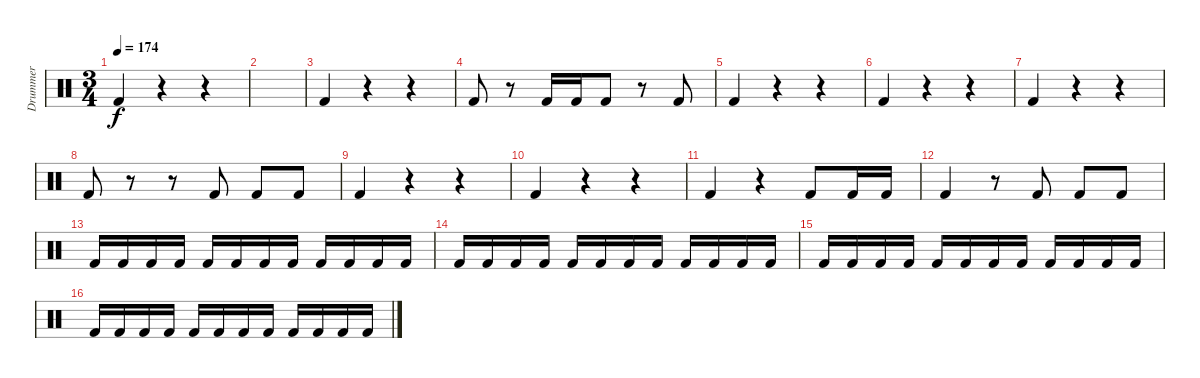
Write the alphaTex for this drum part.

\track ("Drummer" "Drummer") {instrument percussion}
\staff {score}
\articulation defaults
\ts (3 4)
\tempo 174
\clef neutral
\ks c "Kick (hit) 2".4{dy f}
r.4 r.4 |
|
"Kick (hit) 2".4 r.4 r.4 |
"Kick (hit) 2".8 r.8 "Kick (hit) 2".16 "Kick (hit) 2".16 "Kick (hit) 2".8 r.8 "Kick (hit) 2".8 |
"Kick (hit) 2".4 r.4 r.4 |
"Kick (hit) 2".4 r.4 r.4 |
"Kick (hit) 2".4 r.4 r.4 |
"Kick (hit) 2".8 r.8 r.8 "Kick (hit) 2".8 "Kick (hit) 2".8 "Kick (hit) 2".8 |
"Kick (hit) 2".4 r.4 r.4 |
"Kick (hit) 2".4 r.4 r.4 |
"Kick (hit) 2".4 r.4 "Kick (hit) 2".8 "Kick (hit) 2".16 "Kick (hit) 2".16 |
"Kick (hit) 2".4 r.8 "Kick (hit) 2".8 "Kick (hit) 2".8 "Kick (hit) 2".8 |
"Kick (hit) 2".16 "Kick (hit) 2".16 "Kick (hit) 2".16 "Kick (hit) 2".16 "Kick (hit) 2".16 "Kick (hit) 2".16 "Kick (hit) 2".16 "Kick (hit) 2".16 "Kick (hit) 2".16 "Kick (hit) 2".16 "Kick (hit) 2".16 "Kick (hit) 2".16 |
"Kick (hit) 2".16 "Kick (hit) 2".16 "Kick (hit) 2".16 "Kick (hit) 2".16 "Kick (hit) 2".16 "Kick (hit) 2".16 "Kick (hit) 2".16 "Kick (hit) 2".16 "Kick (hit) 2".16 "Kick (hit) 2".16 "Kick (hit) 2".16 "Kick (hit) 2".16 |
"Kick (hit) 2".16 "Kick (hit) 2".16 "Kick (hit) 2".16 "Kick (hit) 2".16 "Kick (hit) 2".16 "Kick (hit) 2".16 "Kick (hit) 2".16 "Kick (hit) 2".16 "Kick (hit) 2".16 "Kick (hit) 2".16 "Kick (hit) 2".16 "Kick (hit) 2".16 |
"Kick (hit) 2".16 "Kick (hit) 2".16 "Kick (hit) 2".16 "Kick (hit) 2".16 "Kick (hit) 2".16 "Kick (hit) 2".16 "Kick (hit) 2".16 "Kick (hit) 2".16 "Kick (hit) 2".16 "Kick (hit) 2".16 "Kick (hit) 2".16 "Kick (hit) 2".16
